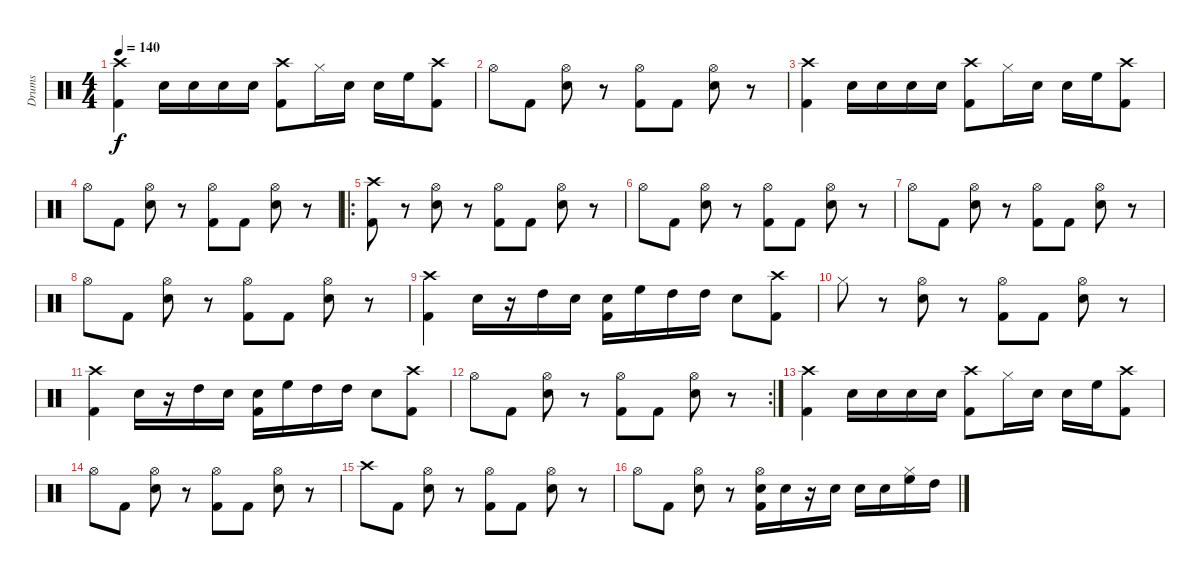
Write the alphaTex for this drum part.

\track ("Drums" "Drums") {instrument percussion}
\staff {score}
\articulation defaults
\ts (4 4)
\tempo 140
\clef neutral
\ks c
("Crash high (hit)" "Kick (hit) 2").4{dy f} "Electric Snare (hit)".16 "Electric Snare (hit)".16 "Electric Snare (hit)".16 "Electric Snare (hit)".16 ("Crash high (hit)" "Kick (hit) 2").8 "Hi-Hat (closed)".16 "Electric Snare (hit)".16 "Electric Snare (hit)".16 "High Floor Tom (hit)".16 ("Crash high (hit)" "Kick (hit) 2").8 |
"Hi-Hat (open)".8 "Kick (hit) 2".8 ("Hi-Hat (open)" "Electric Snare (hit)").8 r.8 ("Hi-Hat (open)" "Kick (hit) 2").8 "Kick (hit) 2".8 ("Hi-Hat (open)" "Electric Snare (hit)").8 r.8 |
("Crash high (hit)" "Kick (hit) 2").4 "Electric Snare (hit)".16 "Electric Snare (hit)".16 "Electric Snare (hit)".16 "Electric Snare (hit)".16 ("Crash high (hit)" "Kick (hit) 2").8 "Hi-Hat (closed)".16 "Electric Snare (hit)".16 "Electric Snare (hit)".16 "High Floor Tom (hit)".16 ("Crash high (hit)" "Kick (hit) 2").8 |
"Hi-Hat (open)".8 "Kick (hit) 2".8 ("Hi-Hat (open)" "Electric Snare (hit)").8 r.8 ("Hi-Hat (open)" "Kick (hit) 2").8 "Kick (hit) 2".8 ("Hi-Hat (open)" "Electric Snare (hit)").8 r.8 |
\ro
("Crash high (hit)" "Kick (hit) 2").8 r.8 ("Hi-Hat (open)" "Electric Snare (hit)").8 r.8 ("Hi-Hat (open)" "Kick (hit) 2").8 "Kick (hit) 2".8 ("Hi-Hat (open)" "Electric Snare (hit)").8 r.8 |
"Hi-Hat (open)".8 "Kick (hit) 2".8 ("Hi-Hat (open)" "Electric Snare (hit)").8 r.8 ("Hi-Hat (open)" "Kick (hit) 2").8 "Kick (hit) 2".8 ("Hi-Hat (open)" "Electric Snare (hit)").8 r.8 |
"Hi-Hat (open)".8 "Kick (hit) 2".8 ("Hi-Hat (open)" "Electric Snare (hit)").8 r.8 ("Hi-Hat (open)" "Kick (hit) 2").8 "Kick (hit) 2".8 ("Hi-Hat (open)" "Electric Snare (hit)").8 r.8 |
"Hi-Hat (open)".8 "Kick (hit) 2".8 ("Hi-Hat (open)" "Electric Snare (hit)").8 r.8 ("Hi-Hat (open)" "Kick (hit) 2").8 "Kick (hit) 2".8 ("Hi-Hat (open)" "Electric Snare (hit)").8 r.8 |
("Crash high (hit)" "Kick (hit) 2").4 "Electric Snare (hit)".16 r.16 "High Tom (hit)".16 "Electric Snare (hit)".16 ("Electric Snare (hit)" "Kick (hit) 2").16 "High Floor Tom (hit)".16 "High Tom (hit)".16 "High Tom (hit)".16 "Electric Snare (hit)".8 ("Crash high (hit)" "Kick (hit) 2").8 |
"Hi-Hat (closed)".8 r.8 ("Hi-Hat (open)" "Electric Snare (hit)").8 r.8 ("Hi-Hat (open)" "Kick (hit) 2").8 "Kick (hit) 2".8 ("Hi-Hat (open)" "Electric Snare (hit)").8 r.8 |
("Crash high (hit)" "Kick (hit) 2").4 "Electric Snare (hit)".16 r.16 "High Tom (hit)".16 "Electric Snare (hit)".16 ("Electric Snare (hit)" "Kick (hit) 2").16 "High Floor Tom (hit)".16 "High Tom (hit)".16 "High Tom (hit)".16 "Electric Snare (hit)".8 ("Crash high (hit)" "Kick (hit) 2").8 |
\rc 2 "Hi-Hat (open)".8 "Kick (hit) 2".8
("Hi-Hat (open)" "Electric Snare (hit)").8 r.8 ("Hi-Hat (open)" "Kick (hit) 2").8 "Kick (hit) 2".8 ("Hi-Hat (open)" "Electric Snare (hit)").8 r.8 |
("Crash high (hit)" "Kick (hit) 2").4 "Electric Snare (hit)".16 "Electric Snare (hit)".16 "Electric Snare (hit)".16 "Electric Snare (hit)".16 ("Crash high (hit)" "Kick (hit) 2").8 "Hi-Hat (closed)".16 "Electric Snare (hit)".16 "Electric Snare (hit)".16 "High Floor Tom (hit)".16 ("Crash high (hit)" "Kick (hit) 2").8 |
"Hi-Hat (open)".8 "Kick (hit) 2".8 ("Hi-Hat (open)" "Electric Snare (hit)").8 r.8 ("Hi-Hat (open)" "Kick (hit) 2").8 "Kick (hit) 2".8 ("Hi-Hat (open)" "Electric Snare (hit)").8 r.8 |
"Crash high (hit)".8 "Kick (hit) 2".8 ("Hi-Hat (open)" "Electric Snare (hit)").8 r.8 ("Hi-Hat (open)" "Kick (hit) 2").8 "Kick (hit) 2".8 ("Hi-Hat (open)" "Electric Snare (hit)").8 r.8 |
"Hi-Hat (open)".8 "Kick (hit) 2".8 ("Hi-Hat (open)" "Electric Snare (hit)").8 r.8 ("Hi-Hat (open)" "Electric Snare (hit)" "Kick (hit) 2").16 "Electric Snare (hit)".16 r.16 "Electric Snare (hit)".16 "Electric Snare (hit)".16 "Electric Snare (hit)".16 ("Hi-Hat (closed)" "High Floor Tom (hit)").16 "High Tom (hit)".16
